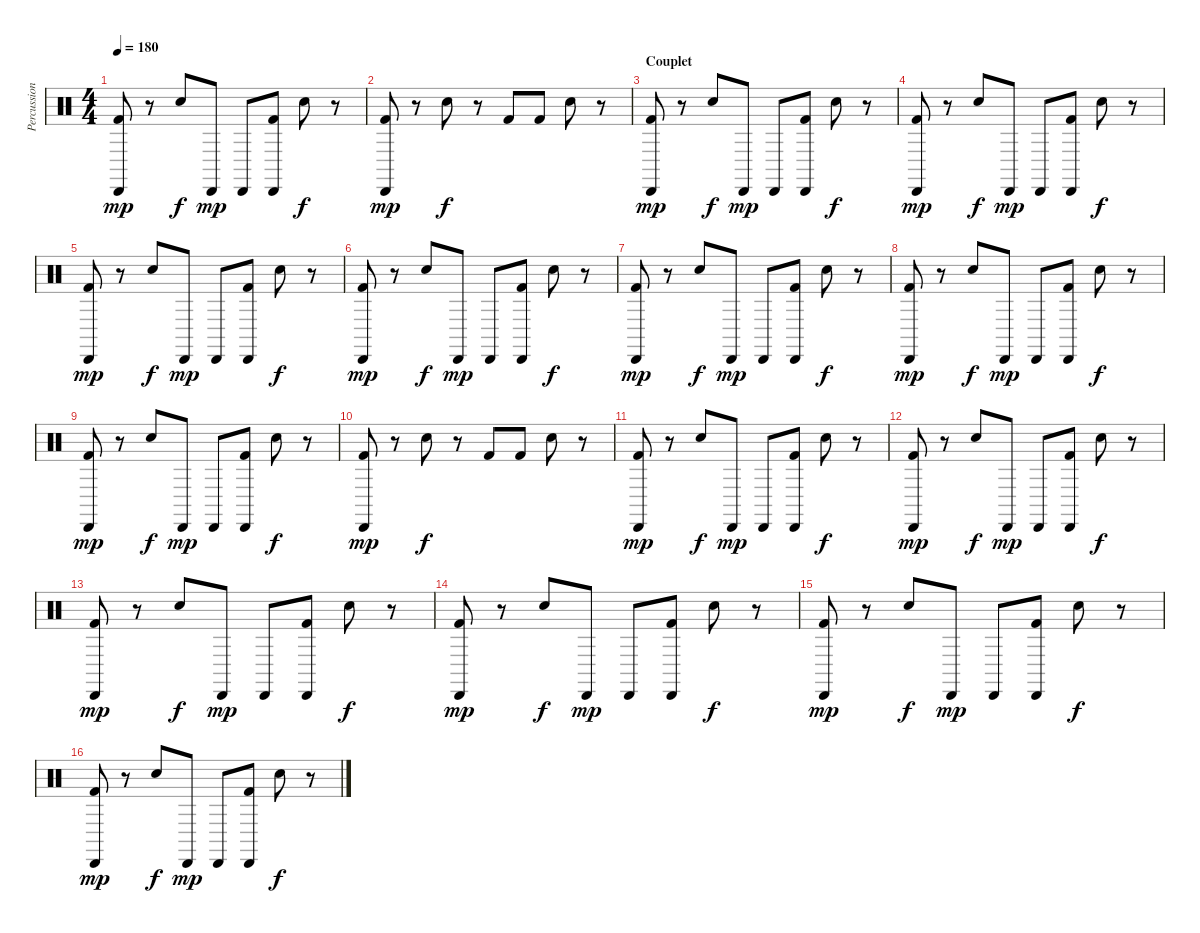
\track ("Percussions" "Percussion") {instrument percussion}
\staff {score}
\articulation defaults
\ts (4 4)
\tempo 180
\clef neutral
\ks c
("Cabasa (hit)" "Kick (hit) 2").8{dy mp} r.8 "Electric Snare (hit)".8{dy f} "Cabasa (hit)".8{dy mp} "Cabasa (hit)".8 ("Cabasa (hit)" "Kick (hit) 2").8 "Electric Snare (hit)".8{dy f} r.8 |
("Cabasa (hit)" "Kick (hit) 2").8{dy mp} r.8 "Electric Snare (hit)".8{dy f} r.8 "Kick (hit) 2".8 "Kick (hit) 2".8 "Electric Snare (hit)".8 r.8 |
\section ("" "Couplet")
("Cabasa (hit)" "Kick (hit) 2").8{dy mp} r.8 "Electric Snare (hit)".8{dy f} "Cabasa (hit)".8{dy mp} "Cabasa (hit)".8 ("Cabasa (hit)" "Kick (hit) 2").8 "Electric Snare (hit)".8{dy f} r.8 |
("Cabasa (hit)" "Kick (hit) 2").8{dy mp} r.8 "Electric Snare (hit)".8{dy f} "Cabasa (hit)".8{dy mp} "Cabasa (hit)".8 ("Cabasa (hit)" "Kick (hit) 2").8 "Electric Snare (hit)".8{dy f} r.8 |
("Cabasa (hit)" "Kick (hit) 2").8{dy mp} r.8 "Electric Snare (hit)".8{dy f} "Cabasa (hit)".8{dy mp} "Cabasa (hit)".8 ("Cabasa (hit)" "Kick (hit) 2").8 "Electric Snare (hit)".8{dy f} r.8 |
("Cabasa (hit)" "Kick (hit) 2").8{dy mp} r.8 "Electric Snare (hit)".8{dy f} "Cabasa (hit)".8{dy mp} "Cabasa (hit)".8 ("Cabasa (hit)" "Kick (hit) 2").8 "Electric Snare (hit)".8{dy f} r.8 |
("Cabasa (hit)" "Kick (hit) 2").8{dy mp} r.8 "Electric Snare (hit)".8{dy f} "Cabasa (hit)".8{dy mp} "Cabasa (hit)".8 ("Cabasa (hit)" "Kick (hit) 2").8 "Electric Snare (hit)".8{dy f} r.8 |
("Cabasa (hit)" "Kick (hit) 2").8{dy mp} r.8 "Electric Snare (hit)".8{dy f} "Cabasa (hit)".8{dy mp} "Cabasa (hit)".8 ("Cabasa (hit)" "Kick (hit) 2").8 "Electric Snare (hit)".8{dy f} r.8 |
("Cabasa (hit)" "Kick (hit) 2").8{dy mp} r.8 "Electric Snare (hit)".8{dy f} "Cabasa (hit)".8{dy mp} "Cabasa (hit)".8 ("Cabasa (hit)" "Kick (hit) 2").8 "Electric Snare (hit)".8{dy f} r.8 |
("Cabasa (hit)" "Kick (hit) 2").8{dy mp} r.8 "Electric Snare (hit)".8{dy f} r.8 "Kick (hit) 2".8 "Kick (hit) 2".8 "Electric Snare (hit)".8 r.8 |
("Cabasa (hit)" "Kick (hit) 2").8{dy mp} r.8 "Electric Snare (hit)".8{dy f} "Cabasa (hit)".8{dy mp} "Cabasa (hit)".8 ("Cabasa (hit)" "Kick (hit) 2").8 "Electric Snare (hit)".8{dy f} r.8 |
("Cabasa (hit)" "Kick (hit) 2").8{dy mp} r.8 "Electric Snare (hit)".8{dy f} "Cabasa (hit)".8{dy mp} "Cabasa (hit)".8 ("Cabasa (hit)" "Kick (hit) 2").8 "Electric Snare (hit)".8{dy f} r.8 |
("Cabasa (hit)" "Kick (hit) 2").8{dy mp} r.8 "Electric Snare (hit)".8{dy f} "Cabasa (hit)".8{dy mp} "Cabasa (hit)".8 ("Cabasa (hit)" "Kick (hit) 2").8 "Electric Snare (hit)".8{dy f} r.8 |
("Cabasa (hit)" "Kick (hit) 2").8{dy mp} r.8 "Electric Snare (hit)".8{dy f} "Cabasa (hit)".8{dy mp} "Cabasa (hit)".8 ("Cabasa (hit)" "Kick (hit) 2").8 "Electric Snare (hit)".8{dy f} r.8 |
("Cabasa (hit)" "Kick (hit) 2").8{dy mp} r.8 "Electric Snare (hit)".8{dy f} "Cabasa (hit)".8{dy mp} "Cabasa (hit)".8 ("Cabasa (hit)" "Kick (hit) 2").8 "Electric Snare (hit)".8{dy f} r.8 |
("Cabasa (hit)" "Kick (hit) 2").8{dy mp} r.8 "Electric Snare (hit)".8{dy f} "Cabasa (hit)".8{dy mp} "Cabasa (hit)".8 ("Cabasa (hit)" "Kick (hit) 2").8 "Electric Snare (hit)".8{dy f} r.8
